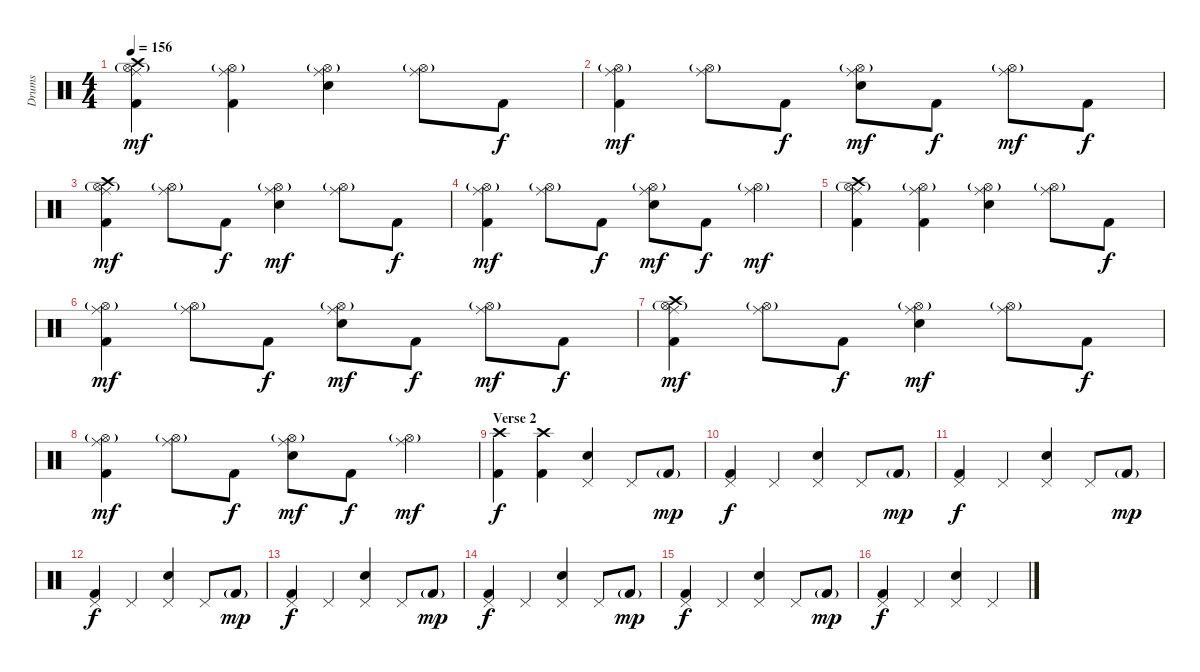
\track ("Drums" "Drums") {instrument percussion}
\staff {score}
\articulation defaults
\ts (4 4)
\tempo 156
\clef neutral
\ks c
("Crash high (hit)" "Ride (middle)" "Hi-Hat (open)"{g} "Kick (hit) 2").4{dy mf} ("Ride (middle)" "Hi-Hat (open)"{g} "Kick (hit) 2").4 ("Ride (middle)" "Hi-Hat (open)"{g} "Electric Snare (hit)").4 ("Ride (middle)" "Hi-Hat (open)"{g}).8 "Kick (hit) 2".8{dy f} |
("Ride (middle)" "Hi-Hat (open)"{g} "Kick (hit) 2").4{dy mf} ("Ride (middle)" "Hi-Hat (open)"{g}).8 "Kick (hit) 2".8{dy f} ("Ride (middle)" "Hi-Hat (open)"{g} "Electric Snare (hit)").8{dy mf} "Kick (hit) 2".8{dy f} ("Ride (middle)" "Hi-Hat (open)"{g}).8{dy mf} "Kick (hit) 2".8{dy f} |
("Crash high (hit)" "Ride (middle)" "Hi-Hat (open)"{g} "Kick (hit) 2").4{dy mf} ("Ride (middle)" "Hi-Hat (open)"{g}).8 "Kick (hit) 2".8{dy f} ("Ride (middle)" "Hi-Hat (open)"{g} "Electric Snare (hit)").4{dy mf} ("Ride (middle)" "Hi-Hat (open)"{g}).8 "Kick (hit) 2".8{dy f} |
("Ride (middle)" "Hi-Hat (open)"{g} "Kick (hit) 2").4{dy mf} ("Ride (middle)" "Hi-Hat (open)"{g}).8 "Kick (hit) 2".8{dy f} ("Ride (middle)" "Hi-Hat (open)"{g} "Electric Snare (hit)").8{dy mf} "Kick (hit) 2".8{dy f} ("Ride (middle)" "Hi-Hat (open)"{g}).4{dy mf} |
("Crash high (hit)" "Ride (middle)" "Hi-Hat (open)"{g} "Kick (hit) 2").4 ("Ride (middle)" "Hi-Hat (open)"{g} "Kick (hit) 2").4 ("Ride (middle)" "Hi-Hat (open)"{g} "Electric Snare (hit)").4 ("Ride (middle)" "Hi-Hat (open)"{g}).8 "Kick (hit) 2".8{dy f} |
("Ride (middle)" "Hi-Hat (open)"{g} "Kick (hit) 2").4{dy mf} ("Ride (middle)" "Hi-Hat (open)"{g}).8 "Kick (hit) 2".8{dy f} ("Ride (middle)" "Hi-Hat (open)"{g} "Electric Snare (hit)").8{dy mf} "Kick (hit) 2".8{dy f} ("Ride (middle)" "Hi-Hat (open)"{g}).8{dy mf} "Kick (hit) 2".8{dy f} |
("Crash high (hit)" "Ride (middle)" "Hi-Hat (open)"{g} "Kick (hit) 2").4{dy mf} ("Ride (middle)" "Hi-Hat (open)"{g}).8 "Kick (hit) 2".8{dy f} ("Ride (middle)" "Hi-Hat (open)"{g} "Electric Snare (hit)").4{dy mf} ("Ride (middle)" "Hi-Hat (open)"{g}).8 "Kick (hit) 2".8{dy f} |
("Ride (middle)" "Hi-Hat (open)"{g} "Kick (hit) 2").4{dy mf} ("Ride (middle)" "Hi-Hat (open)"{g}).8 "Kick (hit) 2".8{dy f} ("Ride (middle)" "Hi-Hat (open)"{g} "Electric Snare (hit)").8{dy mf} "Kick (hit) 2".8{dy f} ("Ride (middle)" "Hi-Hat (open)"{g}).4{dy mf} |
\section ("" "Verse 2")
("Crash high (hit)" "Kick (hit) 2").4{dy f} ("Crash high (hit)" "Kick (hit) 2").4 ("Pedal Hi-Hat (hit)" "Electric Snare (hit)").4 "Pedal Hi-Hat (hit)".8 "Kick (hit) 2"{g}.8{dy mp} |
("Pedal Hi-Hat (hit)" "Kick (hit) 2").4{dy f} "Pedal Hi-Hat (hit)".4 ("Pedal Hi-Hat (hit)" "Electric Snare (hit)").4 "Pedal Hi-Hat (hit)".8 "Kick (hit) 2"{g}.8{dy mp} |
("Pedal Hi-Hat (hit)" "Kick (hit) 2").4{dy f} "Pedal Hi-Hat (hit)".4 ("Pedal Hi-Hat (hit)" "Electric Snare (hit)").4 "Pedal Hi-Hat (hit)".8 "Kick (hit) 2"{g}.8{dy mp} |
("Pedal Hi-Hat (hit)" "Kick (hit) 2").4{dy f} "Pedal Hi-Hat (hit)".4 ("Pedal Hi-Hat (hit)" "Electric Snare (hit)").4 "Pedal Hi-Hat (hit)".8 "Kick (hit) 2"{g}.8{dy mp} |
("Pedal Hi-Hat (hit)" "Kick (hit) 2").4{dy f} "Pedal Hi-Hat (hit)".4 ("Pedal Hi-Hat (hit)" "Electric Snare (hit)").4 "Pedal Hi-Hat (hit)".8 "Kick (hit) 2"{g}.8{dy mp} |
("Pedal Hi-Hat (hit)" "Kick (hit) 2").4{dy f} "Pedal Hi-Hat (hit)".4 ("Pedal Hi-Hat (hit)" "Electric Snare (hit)").4 "Pedal Hi-Hat (hit)".8 "Kick (hit) 2"{g}.8{dy mp} |
("Pedal Hi-Hat (hit)" "Kick (hit) 2").4{dy f} "Pedal Hi-Hat (hit)".4 ("Pedal Hi-Hat (hit)" "Electric Snare (hit)").4 "Pedal Hi-Hat (hit)".8 "Kick (hit) 2"{g}.8{dy mp} |
("Pedal Hi-Hat (hit)" "Kick (hit) 2").4{dy f} "Pedal Hi-Hat (hit)".4 ("Pedal Hi-Hat (hit)" "Electric Snare (hit)").4 "Pedal Hi-Hat (hit)".4
